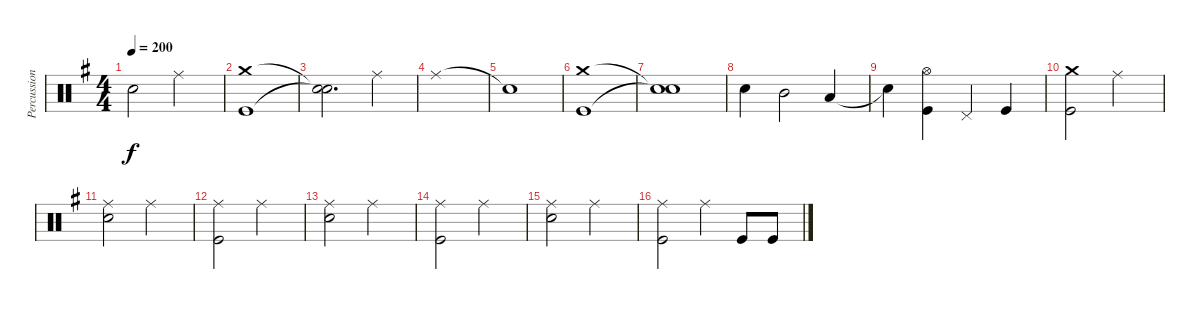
\track ("Percussion" "Percussion") {instrument percussion}
\staff {score}
\articulation defaults
\ts (4 4)
\tempo 200
\clef neutral
\ks g "Snare (hit)"{t}.2{dy f} "Ride (middle)".2
|
("Crash medium (hit)" "Kick (hit)").1 |
("Snare (hit)"{t} "Snare (hit)"{t}).2{d} "Ride (middle)".4 |
"Ride (middle)".1 |
"Snare (hit)"{t}.1 |
("Crash medium (hit)" "Kick (hit)").1 |
("Snare (hit)"{t} "Snare (hit)"{t}).1 |
"Electric Snare (hit)".4 "Mid Tom (hit)".2 "Low Tom (hit)".4 |
"Snare (hit)"{t}.4 ("Hi-Hat (open)" "Kick (hit)").4 "Pedal Hi-Hat (hit)".4 "Kick (hit)".4 |
("Crash medium (hit)" "Kick (hit)").2 "Ride (middle)".2 |
("Ride (middle)" "Electric Snare (hit)").2 "Ride (middle)".2 |
("Ride (middle)" "Kick (hit)").2 "Ride (middle)".2 |
("Ride (middle)" "Electric Snare (hit)").2 "Ride (middle)".2 |
("Ride (middle)" "Kick (hit)").2 "Ride (middle)".2 |
("Ride (middle)" "Electric Snare (hit)").2 "Ride (middle)".2 |
("Ride (middle)" "Kick (hit)").2 "Ride (middle)".4 "Kick (hit)".8 "Kick (hit)".8
